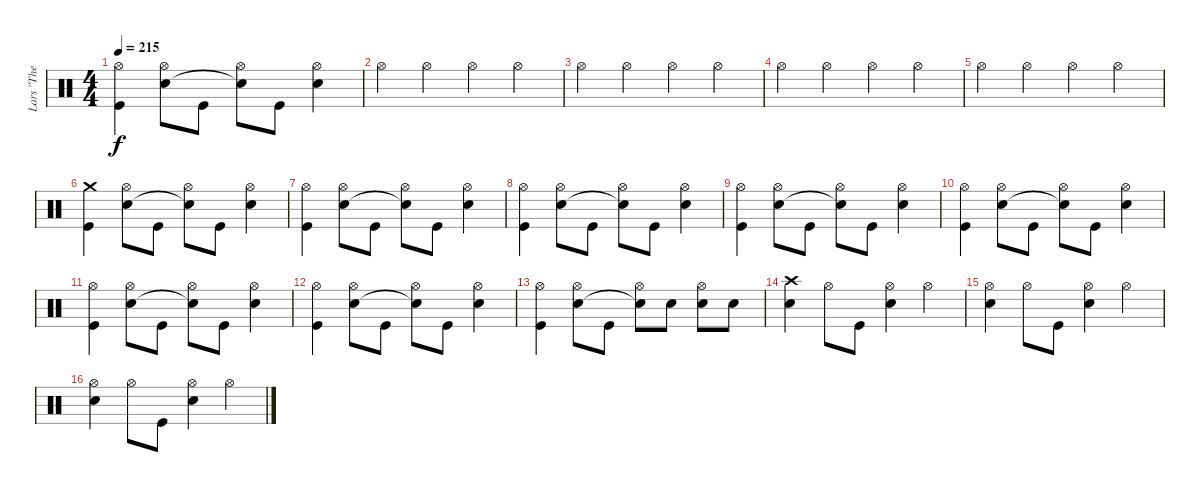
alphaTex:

\track ("Lars \"The Antichrist\" Ulrich" "Lars \"The ") {instrument percussion}
\staff {score}
\articulation defaults
\ts (4 4)
\tempo 215
\clef neutral
\ks c
("Hi-Hat (open)" "Kick (hit)").4{dy f} ("Hi-Hat (open)" "Electric Snare (hit)").8 "Kick (hit)".8 ("Hi-Hat (open)" "Snare (hit)"{t}).8 "Kick (hit)".8 ("Hi-Hat (open)" "Electric Snare (hit)").4 |
"Hi-Hat (open)".4 "Hi-Hat (open)".4 "Hi-Hat (open)".4 "Hi-Hat (open)".4 |
"Hi-Hat (open)".4 "Hi-Hat (open)".4 "Hi-Hat (open)".4 "Hi-Hat (open)".4 |
"Hi-Hat (open)".4 "Hi-Hat (open)".4 "Hi-Hat (open)".4 "Hi-Hat (open)".4 |
"Hi-Hat (open)".4 "Hi-Hat (open)".4 "Hi-Hat (open)".4 "Hi-Hat (open)".4 |
("Crash medium (hit)" "Kick (hit)").4 ("Hi-Hat (open)" "Electric Snare (hit)").8 "Kick (hit)".8 ("Hi-Hat (open)" "Snare (hit)"{t}).8 "Kick (hit)".8 ("Hi-Hat (open)" "Electric Snare (hit)").4 |
("Hi-Hat (open)" "Kick (hit)").4 ("Hi-Hat (open)" "Electric Snare (hit)").8 "Kick (hit)".8 ("Hi-Hat (open)" "Snare (hit)"{t}).8 "Kick (hit)".8 ("Hi-Hat (open)" "Electric Snare (hit)").4 |
("Hi-Hat (open)" "Kick (hit)").4 ("Hi-Hat (open)" "Electric Snare (hit)").8 "Kick (hit)".8 ("Hi-Hat (open)" "Snare (hit)"{t}).8 "Kick (hit)".8 ("Hi-Hat (open)" "Electric Snare (hit)").4 |
("Hi-Hat (open)" "Kick (hit)").4 ("Hi-Hat (open)" "Electric Snare (hit)").8 "Kick (hit)".8 ("Hi-Hat (open)" "Snare (hit)"{t}).8 "Kick (hit)".8 ("Hi-Hat (open)" "Electric Snare (hit)").4 |
("Hi-Hat (open)" "Kick (hit)").4 ("Hi-Hat (open)" "Electric Snare (hit)").8 "Kick (hit)".8 ("Hi-Hat (open)" "Snare (hit)"{t}).8 "Kick (hit)".8 ("Hi-Hat (open)" "Electric Snare (hit)").4 |
("Hi-Hat (open)" "Kick (hit)").4 ("Hi-Hat (open)" "Electric Snare (hit)").8 "Kick (hit)".8 ("Hi-Hat (open)" "Snare (hit)"{t}).8 "Kick (hit)".8 ("Hi-Hat (open)" "Electric Snare (hit)").4 |
("Hi-Hat (open)" "Kick (hit)").4 ("Hi-Hat (open)" "Electric Snare (hit)").8 "Kick (hit)".8 ("Hi-Hat (open)" "Snare (hit)"{t}).8 "Kick (hit)".8 ("Hi-Hat (open)" "Electric Snare (hit)").4 |
("Hi-Hat (open)" "Kick (hit)").4 ("Hi-Hat (open)" "Electric Snare (hit)").8 "Kick (hit)".8 ("Hi-Hat (open)" "Snare (hit)"{t}).8 "Electric Snare (hit)".8 ("Hi-Hat (open)" "Electric Snare (hit)").8 "Electric Snare (hit)".8 |
("Crash high (hit)" "Electric Snare (hit)").4 "Hi-Hat (open)".8 "Kick (hit)".8 ("Hi-Hat (open)" "Electric Snare (hit)").4 "Hi-Hat (open)".4 |
("Hi-Hat (open)" "Electric Snare (hit)").4 "Hi-Hat (open)".8 "Kick (hit)".8 ("Hi-Hat (open)" "Electric Snare (hit)").4 "Hi-Hat (open)".4 |
("Hi-Hat (open)" "Electric Snare (hit)").4 "Hi-Hat (open)".8 "Kick (hit)".8 ("Hi-Hat (open)" "Electric Snare (hit)").4 "Hi-Hat (open)".4
